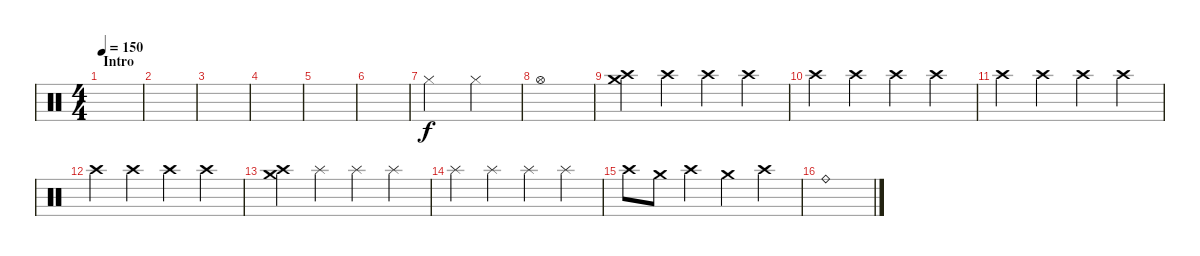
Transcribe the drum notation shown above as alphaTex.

\track "" {instrument percussion}
\staff {score}
\articulation defaults
\ts (4 4)
\section ("" "Intro")
\tempo 150
\clef neutral
\ks c
|
|
|
|
|
|
"Hi-Hat (closed)".2 "Hi-Hat (closed)".2 |
"Hi-Hat (open)".1 |
("Crash medium (hit)" "Crash high (hit)").4 "Crash high (hit)".4 "Crash high (hit)".4 "Crash high (hit)".4 |
"Crash high (hit)".4 "Crash high (hit)".4 "Crash high (hit)".4 "Crash high (hit)".4 |
"Crash high (hit)".4 "Crash high (hit)".4 "Crash high (hit)".4 "Crash high (hit)".4 |
"Crash high (hit)".4 "Crash high (hit)".4 "Crash high (hit)".4 "Crash high (hit)".4 |
("Crash medium (hit)" "Crash high (hit)").4 "Splash (hit)".4 "Splash (hit)".4 "Splash (hit)".4 |
"Splash (hit)".4 "Splash (hit)".4 "Splash (hit)".4 "Splash (hit)".4 |
"Crash high (hit)".8 "Crash medium (hit)".8 "Crash high (hit)".4 "Crash medium (hit)".4 "Crash high (hit)".4 |
"Ride (bell)".1
